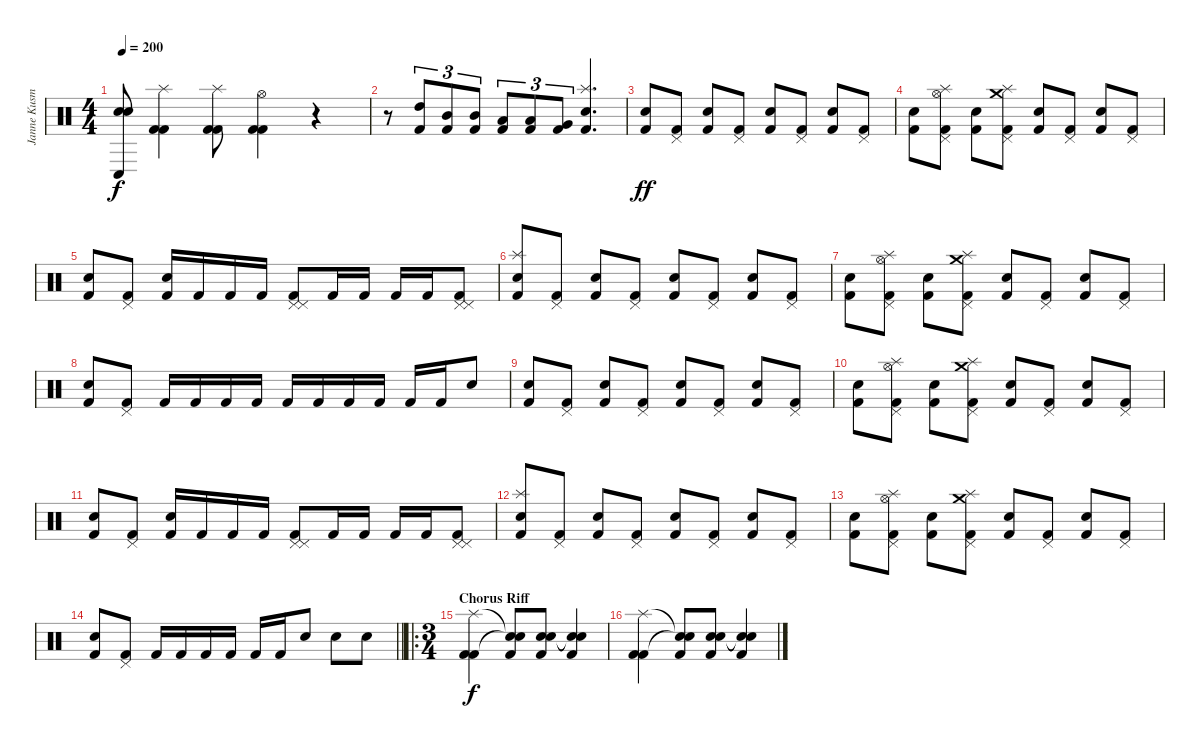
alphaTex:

\track ("Janne Kusmin" "Janne Kusm") {instrument percussion}
\staff {score}
\articulation defaults
\ts (4 4)
\tempo 200
\clef neutral
\ks c
("Snare (hit)"{t} "Snare (hit)"{t} "Conga low (hit)"{t}).8{dy f} ("Splash (hit)" "Kick (hit) 2" "Kick (hit) 2").4 ("Splash (hit)" "Kick (hit) 2" "Kick (hit) 2").8 ("Hi-Hat (open)" "Kick (hit) 2" "Kick (hit) 2").4 r.4 |
r.8 ("High Tom (hit)" "Kick (hit) 2").8{tu (3 2)} ("Mid Tom (hit)" "Kick (hit) 2").8{tu (3 2)} ("Mid Tom (hit)" "Kick (hit) 2").8{tu (3 2)} ("Low Tom (hit)" "Kick (hit) 2").8{tu (3 2)} ("Low Tom (hit)" "Kick (hit) 2").8{tu (3 2)} ("Very Low Tom (hit)" "Kick (hit) 2").8{tu (3 2)} ("Splash (hit)" "Snare (hit) 2" "Kick (hit) 2").4{d} |
("Snare (hit) 2" "Kick (hit) 2").8{dy ff} ("Pedal Hi-Hat (hit)" "Kick (hit) 2").8 ("Snare (hit) 2" "Kick (hit) 2").8 ("Pedal Hi-Hat (hit)" "Kick (hit) 2").8 ("Snare (hit) 2" "Kick (hit) 2").8 ("Pedal Hi-Hat (hit)" "Kick (hit) 2").8 ("Snare (hit) 2" "Kick (hit) 2").8 ("Pedal Hi-Hat (hit)" "Kick (hit) 2").8 |
("Snare (hit) 2" "Kick (hit) 2").8 ("Splash (hit)" "Hi-Hat (open)" "Pedal Hi-Hat (hit)" "Kick (hit) 2").8 ("Snare (hit) 2" "Kick (hit) 2").8 ("Crash medium (hit)" "Splash (hit)" "Pedal Hi-Hat (hit)" "Kick (hit) 2").8 ("Snare (hit) 2" "Kick (hit) 2").8 ("Pedal Hi-Hat (hit)" "Kick (hit) 2").8 ("Snare (hit) 2" "Kick (hit) 2").8 ("Pedal Hi-Hat (hit)" "Kick (hit) 2").8 |
("Snare (hit) 2" "Kick (hit) 2").8 ("Pedal Hi-Hat (hit)" "Kick (hit) 2").8 ("Snare (hit) 2" "Kick (hit) 2").16 "Kick (hit) 2".16 "Kick (hit) 2".16 "Kick (hit) 2".16 ("Pedal Hi-Hat (hit)" "Pedal Hi-Hat (hit)" "Kick (hit) 2").8 "Kick (hit) 2".16 "Kick (hit) 2".16 "Kick (hit) 2".16 "Kick (hit) 2".16 ("Pedal Hi-Hat (hit)" "Pedal Hi-Hat (hit)" "Kick (hit) 2").8 |
("Splash (hit)" "Snare (hit) 2" "Kick (hit) 2").8 ("Pedal Hi-Hat (hit)" "Kick (hit) 2").8 ("Snare (hit) 2" "Kick (hit) 2").8 ("Pedal Hi-Hat (hit)" "Kick (hit) 2").8 ("Snare (hit) 2" "Kick (hit) 2").8 ("Pedal Hi-Hat (hit)" "Kick (hit) 2").8 ("Snare (hit) 2" "Kick (hit) 2").8 ("Pedal Hi-Hat (hit)" "Kick (hit) 2").8 |
("Snare (hit) 2" "Kick (hit) 2").8 ("Splash (hit)" "Hi-Hat (open)" "Pedal Hi-Hat (hit)" "Kick (hit) 2").8 ("Snare (hit) 2" "Kick (hit) 2").8 ("Crash medium (hit)" "Splash (hit)" "Pedal Hi-Hat (hit)" "Kick (hit) 2").8 ("Snare (hit) 2" "Kick (hit) 2").8 ("Pedal Hi-Hat (hit)" "Kick (hit) 2").8 ("Snare (hit) 2" "Kick (hit) 2").8 ("Pedal Hi-Hat (hit)" "Kick (hit) 2").8 |
("Snare (hit) 2" "Kick (hit) 2").8 ("Pedal Hi-Hat (hit)" "Kick (hit) 2").8 "Kick (hit) 2".16 "Kick (hit) 2".16 "Kick (hit) 2".16 "Kick (hit) 2".16 "Kick (hit) 2".16 "Kick (hit) 2".16 "Kick (hit) 2".16 "Kick (hit) 2".16 "Kick (hit) 2".16 "Kick (hit) 2".16 "Snare (hit) 2".8 |
("Snare (hit) 2" "Kick (hit) 2").8 ("Pedal Hi-Hat (hit)" "Kick (hit) 2").8 ("Snare (hit) 2" "Kick (hit) 2").8 ("Pedal Hi-Hat (hit)" "Kick (hit) 2").8 ("Snare (hit) 2" "Kick (hit) 2").8 ("Pedal Hi-Hat (hit)" "Kick (hit) 2").8 ("Snare (hit) 2" "Kick (hit) 2").8 ("Pedal Hi-Hat (hit)" "Kick (hit) 2").8 |
("Snare (hit) 2" "Kick (hit) 2").8 ("Splash (hit)" "Hi-Hat (open)" "Pedal Hi-Hat (hit)" "Kick (hit) 2").8 ("Snare (hit) 2" "Kick (hit) 2").8 ("Crash medium (hit)" "Splash (hit)" "Pedal Hi-Hat (hit)" "Kick (hit) 2").8 ("Snare (hit) 2" "Kick (hit) 2").8 ("Pedal Hi-Hat (hit)" "Kick (hit) 2").8 ("Snare (hit) 2" "Kick (hit) 2").8 ("Pedal Hi-Hat (hit)" "Kick (hit) 2").8 |
("Snare (hit) 2" "Kick (hit) 2").8 ("Pedal Hi-Hat (hit)" "Kick (hit) 2").8 ("Snare (hit) 2" "Kick (hit) 2").16 "Kick (hit) 2".16 "Kick (hit) 2".16 "Kick (hit) 2".16 ("Pedal Hi-Hat (hit)" "Pedal Hi-Hat (hit)" "Kick (hit) 2").8 "Kick (hit) 2".16 "Kick (hit) 2".16 "Kick (hit) 2".16 "Kick (hit) 2".16 ("Pedal Hi-Hat (hit)" "Pedal Hi-Hat (hit)" "Kick (hit) 2").8 |
("Splash (hit)" "Snare (hit) 2" "Kick (hit) 2").8 ("Pedal Hi-Hat (hit)" "Kick (hit) 2").8 ("Snare (hit) 2" "Kick (hit) 2").8 ("Pedal Hi-Hat (hit)" "Kick (hit) 2").8 ("Snare (hit) 2" "Kick (hit) 2").8 ("Pedal Hi-Hat (hit)" "Kick (hit) 2").8 ("Snare (hit) 2" "Kick (hit) 2").8 ("Pedal Hi-Hat (hit)" "Kick (hit) 2").8 |
("Snare (hit) 2" "Kick (hit) 2").8 ("Splash (hit)" "Hi-Hat (open)" "Pedal Hi-Hat (hit)" "Kick (hit) 2").8 ("Snare (hit) 2" "Kick (hit) 2").8 ("Crash medium (hit)" "Splash (hit)" "Pedal Hi-Hat (hit)" "Kick (hit) 2").8 ("Snare (hit) 2" "Kick (hit) 2").8 ("Pedal Hi-Hat (hit)" "Kick (hit) 2").8 ("Snare (hit) 2" "Kick (hit) 2").8 ("Pedal Hi-Hat (hit)" "Kick (hit) 2").8 |
\barLineRight lightlight
("Snare (hit) 2" "Kick (hit) 2").8 ("Pedal Hi-Hat (hit)" "Kick (hit) 2").8 "Kick (hit) 2".16 "Kick (hit) 2".16 "Kick (hit) 2".16 "Kick (hit) 2".16 "Kick (hit) 2".16 "Kick (hit) 2".16 "Snare (hit) 2".8 "Snare (hit) 2".8 "Snare (hit) 2".8 |
\ro
\ts (3 4)
\section ("" "Chorus Riff")
("Splash (hit)" "Kick (hit) 2" "Kick (hit) 2").4{dy f} ("Snare (hit)"{t} "Snare (hit)"{t} "Kick (hit) 2").8 ("Snare (hit) 2" "Snare (hit) 2" "Kick (hit) 2").8 ("Snare (hit)"{t} "Snare (hit)"{t} "Kick (hit) 2").4 |
("Splash (hit)" "Kick (hit) 2" "Kick (hit) 2").4 ("Snare (hit)"{t} "Snare (hit)"{t} "Kick (hit) 2").8 ("Snare (hit) 2" "Snare (hit) 2" "Kick (hit) 2").8 ("Snare (hit)"{t} "Snare (hit)"{t} "Kick (hit) 2").4
